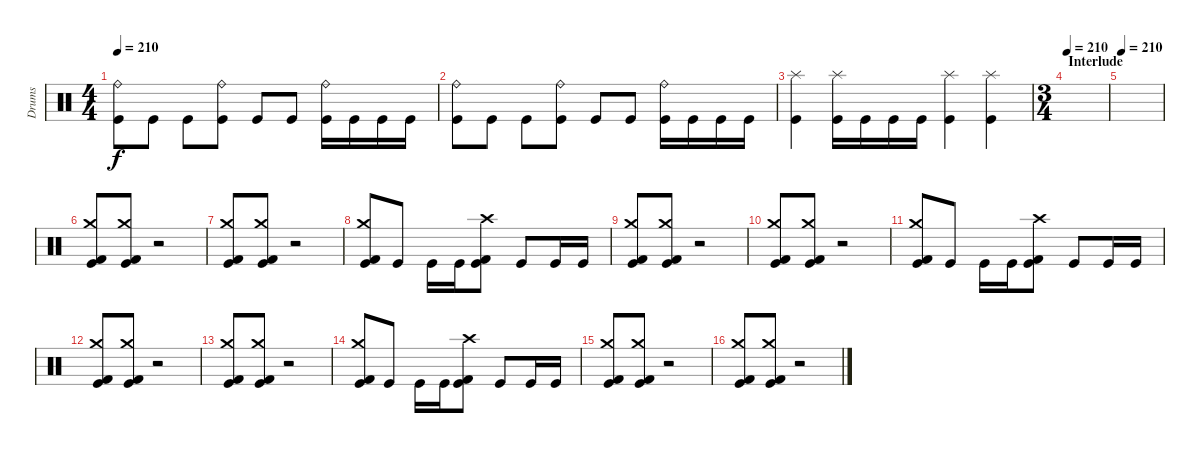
\track ("Drums" "Drums") {instrument percussion}
\staff {score}
\articulation defaults
\ts (4 4)
\tempo 210
\clef neutral
\ks c
("Ride (bell)" "Kick (hit)").8{dy f} "Kick (hit)".8 "Kick (hit)".8 ("Ride (bell)" "Kick (hit)").8 "Kick (hit)".8 "Kick (hit)".8 ("Ride (bell)" "Kick (hit)").16 "Kick (hit)".16 "Kick (hit)".16 "Kick (hit)".16 |
("Ride (bell)" "Kick (hit)").8 "Kick (hit)".8 "Kick (hit)".8 ("Ride (bell)" "Kick (hit)").8 "Kick (hit)".8 "Kick (hit)".8 ("Ride (bell)" "Kick (hit)").16 "Kick (hit)".16 "Kick (hit)".16 "Kick (hit)".16 |
("Splash (hit)" "Kick (hit)").4 ("Splash (hit)" "Kick (hit)").16 "Kick (hit)".16 "Kick (hit)".16 "Kick (hit)".16 ("Splash (hit)" "Kick (hit)").4 ("Splash (hit)" "Kick (hit)").4 |
\ts (3 4)
\section ("" "Interlude")
\tempo 210
|
\tempo 210
|
("Crash medium (hit)" "Kick (hit)" "Kick (hit) 2").8 ("Crash medium (hit)" "Kick (hit)" "Kick (hit) 2").8 r.2 |
("Crash medium (hit)" "Kick (hit)" "Kick (hit) 2").8 ("Crash medium (hit)" "Kick (hit)" "Kick (hit) 2").8 r.2 |
("Crash medium (hit)" "Kick (hit)" "Kick (hit) 2").8 "Kick (hit)".8 "Kick (hit)".16 "Kick (hit)".16 ("Crash high (hit)" "Kick (hit)" "Kick (hit) 2").8 "Kick (hit)".8 "Kick (hit)".16 "Kick (hit)".16 |
("Crash medium (hit)" "Kick (hit)" "Kick (hit) 2").8 ("Crash medium (hit)" "Kick (hit)" "Kick (hit) 2").8 r.2 |
("Crash medium (hit)" "Kick (hit)" "Kick (hit) 2").8 ("Crash medium (hit)" "Kick (hit)" "Kick (hit) 2").8 r.2 |
("Crash medium (hit)" "Kick (hit)" "Kick (hit) 2").8 "Kick (hit)".8 "Kick (hit)".16 "Kick (hit)".16 ("Crash high (hit)" "Kick (hit)" "Kick (hit) 2").8 "Kick (hit)".8 "Kick (hit)".16 "Kick (hit)".16 |
("Crash medium (hit)" "Kick (hit)" "Kick (hit) 2").8 ("Crash medium (hit)" "Kick (hit)" "Kick (hit) 2").8 r.2 |
("Crash medium (hit)" "Kick (hit)" "Kick (hit) 2").8 ("Crash medium (hit)" "Kick (hit)" "Kick (hit) 2").8 r.2 |
("Crash medium (hit)" "Kick (hit)" "Kick (hit) 2").8 "Kick (hit)".8 "Kick (hit)".16 "Kick (hit)".16 ("Crash high (hit)" "Kick (hit)" "Kick (hit) 2").8 "Kick (hit)".8 "Kick (hit)".16 "Kick (hit)".16 |
("Crash medium (hit)" "Kick (hit)" "Kick (hit) 2").8 ("Crash medium (hit)" "Kick (hit)" "Kick (hit) 2").8 r.2 |
("Crash medium (hit)" "Kick (hit)" "Kick (hit) 2").8 ("Crash medium (hit)" "Kick (hit)" "Kick (hit) 2").8 r.2
